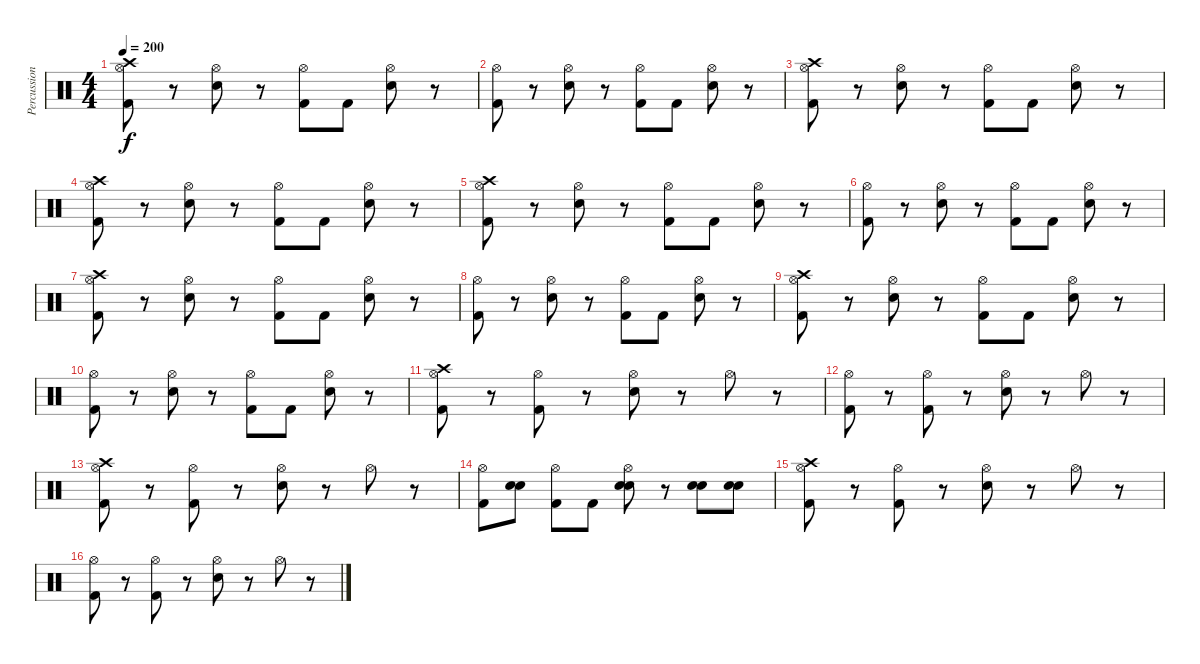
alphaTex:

\track ("Percussioni" "Percussion") {instrument percussion}
\staff {score}
\articulation defaults
\ts (4 4)
\tempo 200
\clef neutral
\ks c
("Crash high (hit)" "Kick (hit) 2" "Hi-Hat (open)").8{dy f} r.8 ("Snare (hit) 2" "Hi-Hat (open)").8 r.8 ("Kick (hit) 2" "Hi-Hat (open)").8 "Kick (hit) 2".8 ("Snare (hit) 2" "Hi-Hat (open)").8 r.8 |
("Kick (hit) 2" "Hi-Hat (open)").8 r.8 ("Snare (hit) 2" "Hi-Hat (open)").8 r.8 ("Kick (hit) 2" "Hi-Hat (open)").8 "Kick (hit) 2".8 ("Snare (hit) 2" "Hi-Hat (open)").8 r.8 |
("Crash high (hit)" "Kick (hit) 2" "Hi-Hat (open)").8 r.8 ("Snare (hit) 2" "Hi-Hat (open)").8 r.8 ("Kick (hit) 2" "Hi-Hat (open)").8 "Kick (hit) 2".8 ("Snare (hit) 2" "Hi-Hat (open)").8 r.8 |
("Crash high (hit)" "Kick (hit) 2" "Hi-Hat (open)").8 r.8 ("Snare (hit) 2" "Hi-Hat (open)").8 r.8 ("Kick (hit) 2" "Hi-Hat (open)").8 "Kick (hit) 2".8 ("Snare (hit) 2" "Hi-Hat (open)").8 r.8 |
("Crash high (hit)" "Kick (hit) 2" "Hi-Hat (open)").8 r.8 ("Snare (hit) 2" "Hi-Hat (open)").8 r.8 ("Kick (hit) 2" "Hi-Hat (open)").8 "Kick (hit) 2".8 ("Snare (hit) 2" "Hi-Hat (open)").8 r.8 |
("Kick (hit) 2" "Hi-Hat (open)").8 r.8 ("Snare (hit) 2" "Hi-Hat (open)").8 r.8 ("Kick (hit) 2" "Hi-Hat (open)").8 "Kick (hit) 2".8 ("Snare (hit) 2" "Hi-Hat (open)").8 r.8 |
("Crash high (hit)" "Kick (hit) 2" "Hi-Hat (open)").8 r.8 ("Snare (hit) 2" "Hi-Hat (open)").8 r.8 ("Kick (hit) 2" "Hi-Hat (open)").8 "Kick (hit) 2".8 ("Snare (hit) 2" "Hi-Hat (open)").8 r.8 |
("Kick (hit) 2" "Hi-Hat (open)").8 r.8 ("Snare (hit) 2" "Hi-Hat (open)").8 r.8 ("Kick (hit) 2" "Hi-Hat (open)").8 "Kick (hit) 2".8 ("Snare (hit) 2" "Hi-Hat (open)").8 r.8 |
("Crash high (hit)" "Kick (hit) 2" "Hi-Hat (open)").8 r.8 ("Snare (hit) 2" "Hi-Hat (open)").8 r.8 ("Kick (hit) 2" "Hi-Hat (open)").8 "Kick (hit) 2".8 ("Snare (hit) 2" "Hi-Hat (open)").8 r.8 |
("Kick (hit) 2" "Hi-Hat (open)").8 r.8 ("Snare (hit) 2" "Hi-Hat (open)").8 r.8 ("Kick (hit) 2" "Hi-Hat (open)").8 "Kick (hit) 2".8 ("Snare (hit) 2" "Hi-Hat (open)").8 r.8 |
("Crash high (hit)" "Kick (hit) 2" "Hi-Hat (open)").8 r.8 ("Kick (hit) 2" "Hi-Hat (open)").8 r.8 ("Snare (hit) 2" "Hi-Hat (open)").8 r.8 "Hi-Hat (open)".8 r.8 |
("Kick (hit) 2" "Hi-Hat (open)").8 r.8 ("Kick (hit) 2" "Hi-Hat (open)").8 r.8 ("Snare (hit) 2" "Hi-Hat (open)").8 r.8 "Hi-Hat (open)".8 r.8 |
("Crash high (hit)" "Kick (hit) 2" "Hi-Hat (open)").8 r.8 ("Kick (hit) 2" "Hi-Hat (open)").8 r.8 ("Snare (hit) 2" "Hi-Hat (open)").8 r.8 "Hi-Hat (open)".8 r.8 |
("Kick (hit) 2" "Hi-Hat (open)").8 ("Snare (hit) 2" "Snare (hit) 2").8 ("Kick (hit) 2" "Hi-Hat (open)").8 "Kick (hit) 2".8 ("Snare (hit) 2" "Snare (hit) 2" "Hi-Hat (open)").8 r.8 ("Snare (hit) 2" "Snare (hit) 2").8 ("Snare (hit) 2" "Snare (hit) 2").8 |
("Crash high (hit)" "Kick (hit) 2" "Hi-Hat (open)").8 r.8 ("Kick (hit) 2" "Hi-Hat (open)").8 r.8 ("Snare (hit) 2" "Hi-Hat (open)").8 r.8 "Hi-Hat (open)".8 r.8 |
("Kick (hit) 2" "Hi-Hat (open)").8 r.8 ("Kick (hit) 2" "Hi-Hat (open)").8 r.8 ("Snare (hit) 2" "Hi-Hat (open)").8 r.8 "Hi-Hat (open)".8 r.8
